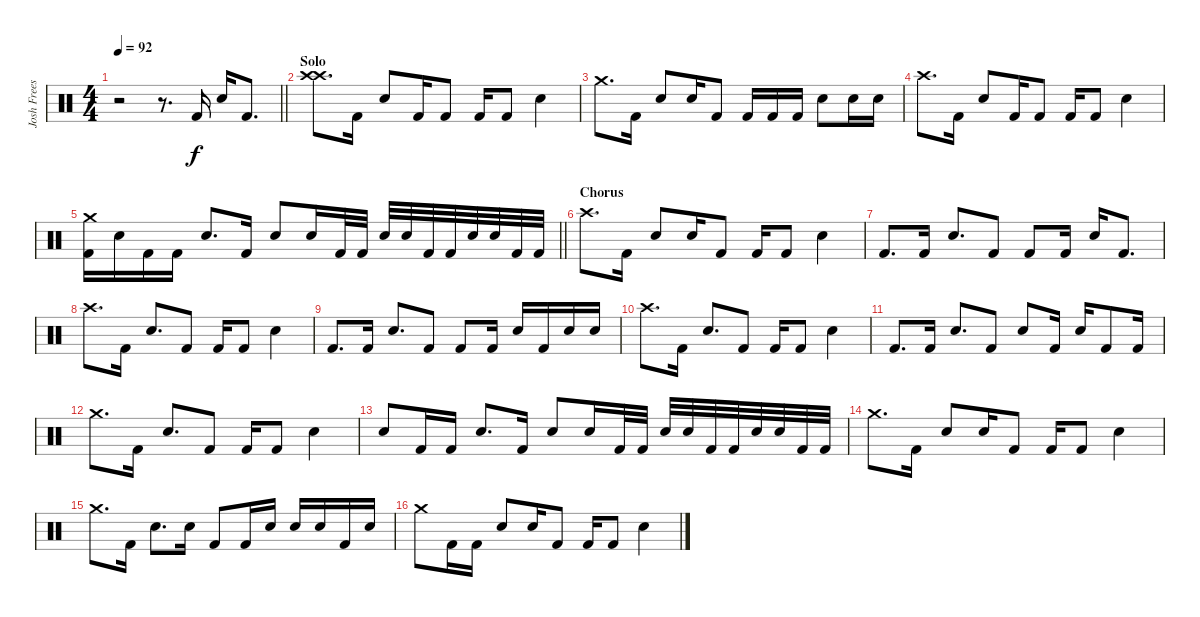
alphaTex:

\track ("Josh Freese (Studio Drummer)" "Josh Frees") {instrument percussion}
\staff {score}
\articulation defaults
\ts (4 4)
\tempo 92
\clef neutral
\barLineRight lightlight
\ks c
r.2{dy f} r.8{d} "Kick (hit) 2".16 "Electric Snare (hit)".16 "Kick (hit) 2".8{d} |
\section ("" "Solo")
("Crash high (hit)" "Crash high (hit)").8{d} "Kick (hit) 2".16 "Electric Snare (hit)".8 "Kick (hit) 2".16 "Kick (hit) 2".8 "Kick (hit) 2".16 "Kick (hit) 2".8 "Electric Snare (hit)".4 |
"Crash medium (hit)".8{d} "Kick (hit) 2".16 "Electric Snare (hit)".8 "Electric Snare (hit)".16 "Kick (hit) 2".8 "Kick (hit) 2".16 "Kick (hit) 2".16 "Kick (hit) 2".16 "Electric Snare (hit)".8 "Electric Snare (hit)".16 "Electric Snare (hit)".16 |
"Crash high (hit)".8{d} "Kick (hit) 2".16 "Electric Snare (hit)".8 "Kick (hit) 2".16 "Kick (hit) 2".8 "Kick (hit) 2".16 "Kick (hit) 2".8 "Electric Snare (hit)".4 |
\barLineRight lightlight
("Crash medium (hit)" "Kick (hit) 2").16 "Electric Snare (hit)".16 "Kick (hit) 2".16 "Kick (hit) 2".16 "Electric Snare (hit)".8{d} "Kick (hit) 2".16 "Electric Snare (hit)".8 "Electric Snare (hit)".16 "Kick (hit) 2".32 "Kick (hit) 2".32 "Electric Snare (hit)".32 "Electric Snare (hit)".32 "Kick (hit) 2".32 "Kick (hit) 2".32 "Electric Snare (hit)".32 "Electric Snare (hit)".32 "Kick (hit) 2".32 "Kick (hit) 2".32 |
\section ("" "Chorus")
"Crash high (hit)".8{d} "Kick (hit) 2".16 "Electric Snare (hit)".8 "Electric Snare (hit)".16 "Kick (hit) 2".8 "Kick (hit) 2".16 "Kick (hit) 2".8 "Electric Snare (hit)".4 |
"Kick (hit) 2".8{d} "Kick (hit) 2".16 "Electric Snare (hit)".8{d} "Kick (hit) 2".8 "Kick (hit) 2".8 "Kick (hit) 2".16 "Electric Snare (hit)".16 "Kick (hit) 2".8{d} |
"Crash high (hit)".8{d} "Kick (hit) 2".16 "Electric Snare (hit)".8{d} "Kick (hit) 2".8 "Kick (hit) 2".16 "Kick (hit) 2".8 "Electric Snare (hit)".4 |
"Kick (hit) 2".8{d} "Kick (hit) 2".16 "Electric Snare (hit)".8{d} "Kick (hit) 2".8 "Kick (hit) 2".8 "Kick (hit) 2".16 "Electric Snare (hit)".16 "Kick (hit) 2".16 "Electric Snare (hit)".16 "Electric Snare (hit)".16 |
"Crash high (hit)".8{d} "Kick (hit) 2".16 "Electric Snare (hit)".8{d} "Kick (hit) 2".8 "Kick (hit) 2".16 "Kick (hit) 2".8 "Electric Snare (hit)".4 |
"Kick (hit) 2".8{d} "Kick (hit) 2".16 "Electric Snare (hit)".8{d} "Kick (hit) 2".8 "Electric Snare (hit)".8 "Kick (hit) 2".16 "Electric Snare (hit)".16 "Kick (hit) 2".8 "Kick (hit) 2".16 |
"Crash medium (hit)".8{d} "Kick (hit) 2".16 "Electric Snare (hit)".8{d} "Kick (hit) 2".8 "Kick (hit) 2".16 "Kick (hit) 2".8 "Electric Snare (hit)".4 |
"Electric Snare (hit)".8 "Kick (hit) 2".16 "Kick (hit) 2".16 "Electric Snare (hit)".8{d} "Kick (hit) 2".16 "Electric Snare (hit)".8 "Electric Snare (hit)".16 "Kick (hit) 2".32 "Kick (hit) 2".32 "Electric Snare (hit)".32 "Electric Snare (hit)".32 "Kick (hit) 2".32 "Kick (hit) 2".32 "Electric Snare (hit)".32 "Electric Snare (hit)".32 "Kick (hit) 2".32 "Kick (hit) 2".32 |
"Crash medium (hit)".8{d} "Kick (hit) 2".16 "Electric Snare (hit)".8 "Electric Snare (hit)".16 "Kick (hit) 2".8 "Kick (hit) 2".16 "Kick (hit) 2".8 "Electric Snare (hit)".4 |
"Crash medium (hit)".8{d} "Kick (hit) 2".16 "Electric Snare (hit)".8{d} "Electric Snare (hit)".16 "Kick (hit) 2".8 "Kick (hit) 2".16 "Electric Snare (hit)".16 "Electric Snare (hit)".16 "Electric Snare (hit)".16 "Kick (hit) 2".16 "Electric Snare (hit)".16 |
"Crash medium (hit)".8 "Kick (hit) 2".16 "Kick (hit) 2".16 "Electric Snare (hit)".8 "Electric Snare (hit)".16 "Kick (hit) 2".8 "Kick (hit) 2".16 "Kick (hit) 2".8 "Electric Snare (hit)".4
